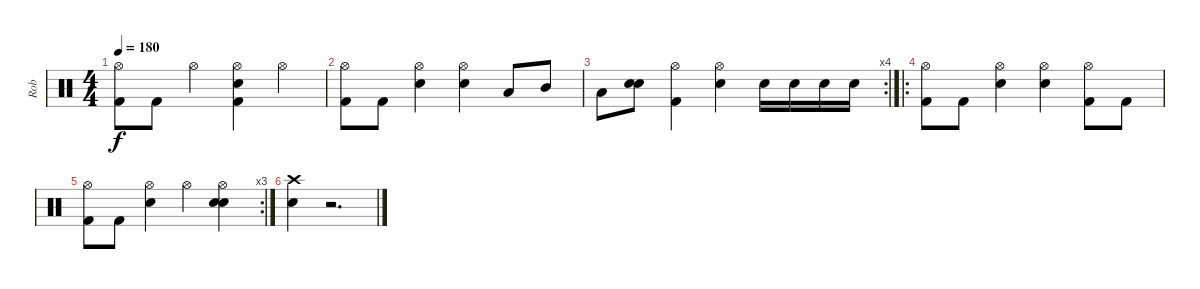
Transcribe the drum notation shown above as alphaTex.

\track ("Rob" "Rob") {instrument percussion}
\staff {score}
\articulation defaults
\ts (4 4)
\tempo 180
\clef neutral
\ks c
("Hi-Hat (open)" "Kick (hit) 2").8{dy f} "Kick (hit) 2".8 "Hi-Hat (open)".4 ("Hi-Hat (open)" "Kick (hit) 2" "Electric Snare (hit)").4{bu 240} "Hi-Hat (open)".4 |
("Hi-Hat (open)" "Kick (hit) 2").8 "Kick (hit) 2".8 ("Hi-Hat (open)" "Electric Snare (hit)").4 ("Hi-Hat (open)" "Electric Snare (hit)").4 "Low Tom (hit)".8 "Mid Tom (hit)".8 |
\rc 4 "Low Tom (hit)".8
("Snare (hit) 2" "Electric Snare (hit)").8{bu 240} ("Hi-Hat (open)" "Kick (hit) 2").4 ("Hi-Hat (open)" "Electric Snare (hit)").4 "Electric Snare (hit)".16 "Electric Snare (hit)".16 "Electric Snare (hit)".16 "Electric Snare (hit)".16 |
\ro
("Hi-Hat (open)" "Kick (hit) 2").8 "Kick (hit) 2".8 ("Hi-Hat (open)" "Electric Snare (hit)").4 ("Hi-Hat (open)" "Electric Snare (hit)").4 ("Hi-Hat (open)" "Kick (hit) 2").8 "Kick (hit) 2".8 |
\rc 3
("Hi-Hat (open)" "Kick (hit) 2").8 "Kick (hit) 2".8 ("Hi-Hat (open)" "Electric Snare (hit)").4 "Hi-Hat (open)".4 ("Hi-Hat (open)" "Snare (hit) 2" "Electric Snare (hit)").4{bu 240} |
("Crash high (hit)" "Electric Snare (hit)").4 r.2{d}
